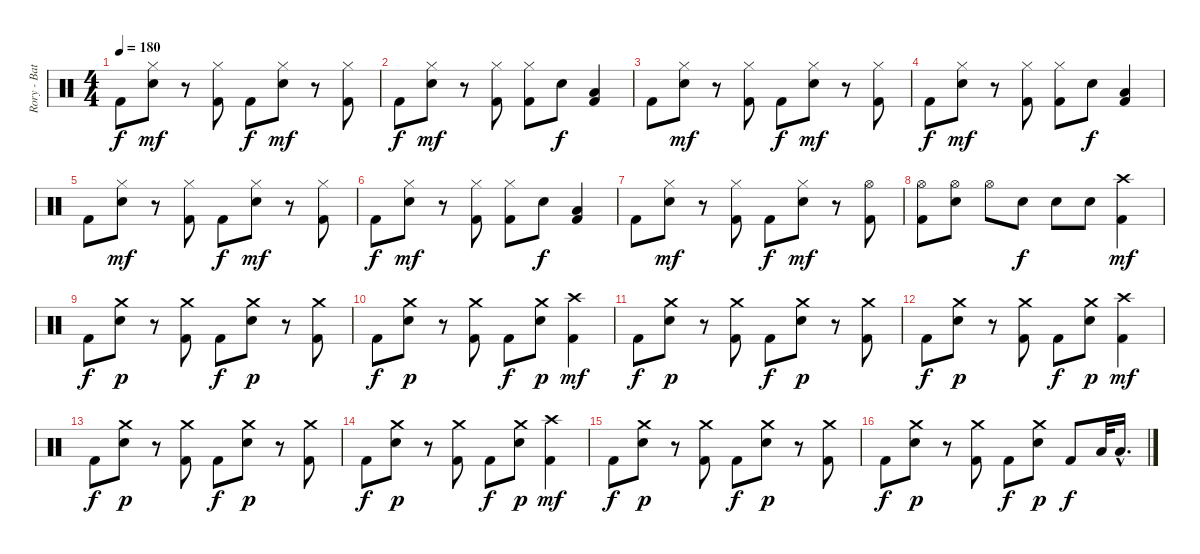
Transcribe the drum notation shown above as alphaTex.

\track ("Rory - Batterie/Drums" "Rory - Bat") {instrument percussion}
\staff {score}
\articulation defaults
\ts (4 4)
\tempo 180
\clef neutral
\ks c "Kick (hit) 2".8{dy f}
("Hi-Hat (closed)" "Electric Snare (hit)").8{dy mf} r.8 ("Hi-Hat (closed)" "Kick (hit) 2").8 "Kick (hit) 2".8{dy f} ("Hi-Hat (closed)" "Electric Snare (hit)").8{dy mf} r.8 ("Hi-Hat (closed)" "Kick (hit) 2").8 |
"Kick (hit) 2".8{dy f} ("Hi-Hat (closed)" "Electric Snare (hit)").8{dy mf} r.8 ("Hi-Hat (closed)" "Kick (hit) 2").8 ("Hi-Hat (closed)" "Kick (hit) 2").8 "Electric Snare (hit)".8{dy f} ("Low Tom (hit)" "Kick (hit) 2").4 |
"Kick (hit) 2".8 ("Hi-Hat (closed)" "Electric Snare (hit)").8{dy mf} r.8 ("Hi-Hat (closed)" "Kick (hit) 2").8 "Kick (hit) 2".8{dy f} ("Hi-Hat (closed)" "Electric Snare (hit)").8{dy mf} r.8 ("Hi-Hat (closed)" "Kick (hit) 2").8 |
"Kick (hit) 2".8{dy f} ("Hi-Hat (closed)" "Electric Snare (hit)").8{dy mf} r.8 ("Hi-Hat (closed)" "Kick (hit) 2").8 ("Hi-Hat (closed)" "Kick (hit) 2").8 "Electric Snare (hit)".8{dy f} ("Low Tom (hit)" "Kick (hit) 2").4 |
"Kick (hit) 2".8 ("Hi-Hat (closed)" "Electric Snare (hit)").8{dy mf} r.8 ("Hi-Hat (closed)" "Kick (hit) 2").8 "Kick (hit) 2".8{dy f} ("Hi-Hat (closed)" "Electric Snare (hit)").8{dy mf} r.8 ("Hi-Hat (closed)" "Kick (hit) 2").8 |
"Kick (hit) 2".8{dy f} ("Hi-Hat (closed)" "Electric Snare (hit)").8{dy mf} r.8 ("Hi-Hat (closed)" "Kick (hit) 2").8 ("Hi-Hat (closed)" "Kick (hit) 2").8 "Electric Snare (hit)".8{dy f} ("Low Tom (hit)" "Kick (hit) 2").4 |
"Kick (hit) 2".8 ("Hi-Hat (closed)" "Electric Snare (hit)").8{dy mf} r.8 ("Hi-Hat (closed)" "Kick (hit) 2").8 "Kick (hit) 2".8{dy f} ("Hi-Hat (closed)" "Electric Snare (hit)").8{dy mf} r.8 ("Hi-Hat (open)" "Kick (hit) 2").8 |
("Hi-Hat (open)" "Kick (hit) 2").8 ("Hi-Hat (open)" "Electric Snare (hit)").8 "Hi-Hat (open)".8 "Electric Snare (hit)".8{dy f} "Electric Snare (hit)".8 "Electric Snare (hit)".8 ("Crash high (hit)" "Kick (hit) 2").4{dy mf} |
"Kick (hit) 2".8{dy f} ("Crash medium (hit)" "Electric Snare (hit)").8{dy p} r.8 ("Crash medium (hit)" "Kick (hit) 2").8 "Kick (hit) 2".8{dy f} ("Crash medium (hit)" "Electric Snare (hit)").8{dy p} r.8 ("Crash medium (hit)" "Kick (hit) 2").8 |
"Kick (hit) 2".8{dy f} ("Crash medium (hit)" "Electric Snare (hit)").8{dy p} r.8 ("Crash medium (hit)" "Kick (hit) 2").8 "Kick (hit) 2".8{dy f} ("Crash medium (hit)" "Electric Snare (hit)").8{dy p} ("Crash high (hit)" "Kick (hit) 2").4{dy mf} |
"Kick (hit) 2".8{dy f} ("Crash medium (hit)" "Electric Snare (hit)").8{dy p} r.8 ("Crash medium (hit)" "Kick (hit) 2").8 "Kick (hit) 2".8{dy f} ("Crash medium (hit)" "Electric Snare (hit)").8{dy p} r.8 ("Crash medium (hit)" "Kick (hit) 2").8 |
"Kick (hit) 2".8{dy f} ("Crash medium (hit)" "Electric Snare (hit)").8{dy p} r.8 ("Crash medium (hit)" "Kick (hit) 2").8 "Kick (hit) 2".8{dy f} ("Crash medium (hit)" "Electric Snare (hit)").8{dy p} ("Crash high (hit)" "Kick (hit) 2").4{dy mf} |
"Kick (hit) 2".8{dy f} ("Crash medium (hit)" "Electric Snare (hit)").8{dy p} r.8 ("Crash medium (hit)" "Kick (hit) 2").8 "Kick (hit) 2".8{dy f} ("Crash medium (hit)" "Electric Snare (hit)").8{dy p} r.8 ("Crash medium (hit)" "Kick (hit) 2").8 |
"Kick (hit) 2".8{dy f} ("Crash medium (hit)" "Electric Snare (hit)").8{dy p} r.8 ("Crash medium (hit)" "Kick (hit) 2").8 "Kick (hit) 2".8{dy f} ("Crash medium (hit)" "Electric Snare (hit)").8{dy p} ("Crash high (hit)" "Kick (hit) 2").4{dy mf} |
"Kick (hit) 2".8{dy f} ("Crash medium (hit)" "Electric Snare (hit)").8{dy p} r.8 ("Crash medium (hit)" "Kick (hit) 2").8 "Kick (hit) 2".8{dy f} ("Crash medium (hit)" "Electric Snare (hit)").8{dy p} r.8 ("Crash medium (hit)" "Kick (hit) 2").8 |
"Kick (hit) 2".8{dy f} ("Crash medium (hit)" "Electric Snare (hit)").8{dy p} r.8 ("Crash medium (hit)" "Kick (hit) 2").8 "Kick (hit) 2".8{dy f} ("Crash medium (hit)" "Electric Snare (hit)").8{dy p} "Kick (hit) 2".8{dy f} "Low Floor Tom (hit)".32 "Low Floor Tom (hit)"{hac}.16{d}
